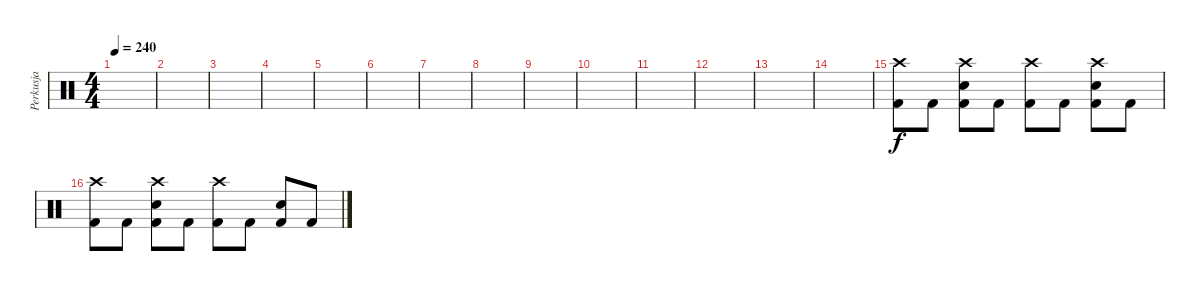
\track ("Perkusja" "Perkusja") {instrument percussion}
\staff {score}
\articulation defaults
\ts (4 4)
\tempo 240
\clef neutral
\ks c
|
|
|
|
|
|
|
|
|
|
|
|
|
|
("Crash high (hit)" "Kick (hit) 2").8 "Kick (hit) 2".8 ("Crash high (hit)" "Snare (hit) 2" "Kick (hit) 2").8 "Kick (hit) 2".8 ("Crash high (hit)" "Kick (hit) 2").8 "Kick (hit) 2".8 ("Crash high (hit)" "Snare (hit) 2" "Kick (hit) 2").8 "Kick (hit) 2".8 |
("Crash high (hit)" "Kick (hit) 2").8 "Kick (hit) 2".8 ("Crash high (hit)" "Snare (hit) 2" "Kick (hit) 2").8 "Kick (hit) 2".8 ("Crash high (hit)" "Kick (hit) 2").8 "Kick (hit) 2".8 ("Snare (hit) 2" "Kick (hit) 2").8 "Kick (hit) 2".8
